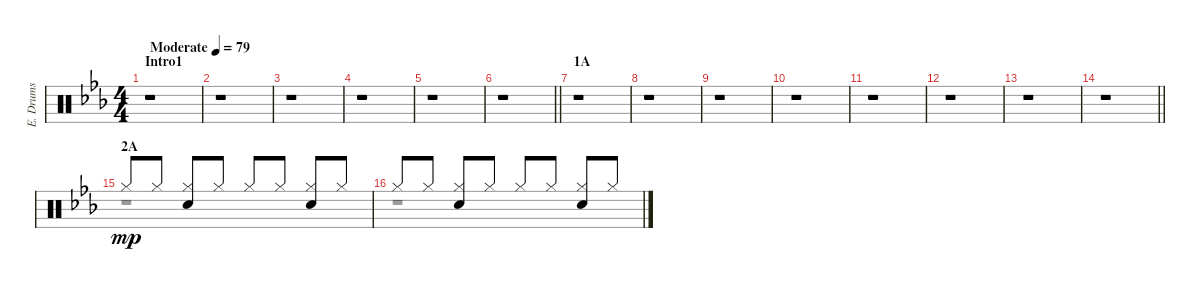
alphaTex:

\track ("E. Drums" "E. Drums") {instrument percussion}
\staff {score}
\articulation defaults
\voice
\ts (4 4)
\section ("" "Intro1")
\tempo (79 "Moderate")
\clef neutral
\ks eb
r.1{dy mp} |
r.1 |
r.1 |
r.1 |
r.1 |
\barLineRight lightlight
r.1 |
\section ("" "1A")
r.1 |
r.1 |
r.1 |
r.1 |
r.1 |
r.1 |
r.1 |
\barLineRight lightlight
r.1 |
\section ("" "2A")
"Hi-Hat (closed)".8 "Hi-Hat (closed)".8 ("Hi-Hat (closed)" "Electric Snare (hit)").8 "Hi-Hat (closed)".8 "Hi-Hat (closed)".8 "Hi-Hat (closed)".8 ("Hi-Hat (closed)" "Electric Snare (hit)").8 "Hi-Hat (closed)".8 |
"Hi-Hat (closed)".8 "Hi-Hat (closed)".8 ("Hi-Hat (closed)" "Electric Snare (hit)").8 "Hi-Hat (closed)".8 "Hi-Hat (closed)".8 "Hi-Hat (closed)".8 ("Hi-Hat (closed)" "Electric Snare (hit)").8 "Hi-Hat (closed)".8
\voice
\clef neutral
\ottava regular
\simile none
\ks eb
r.1{dy f} |
r.1 |
r.1 |
r.1 |
r.1 |
\barLineRight lightlight
r.1 |
r.1 |
r.1 |
r.1 |
r.1 |
r.1 |
r.1 |
r.1 |
\barLineRight lightlight
r.1 |
r.1 |
r.1
